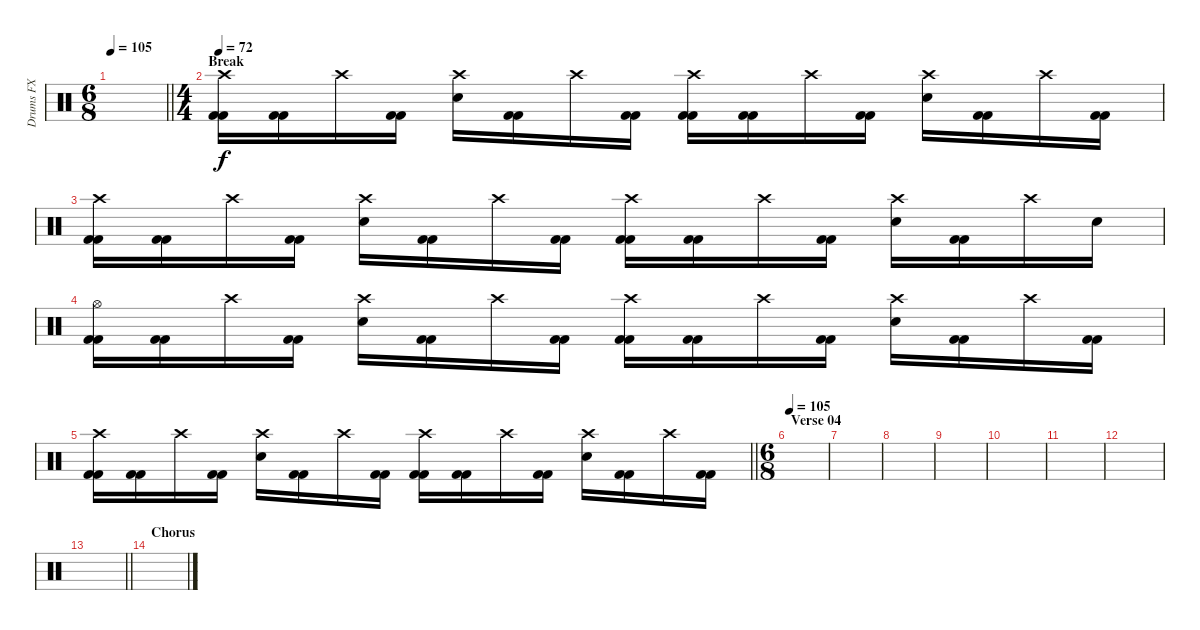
\track ("Drums FX" "Drums FX") {instrument percussion}
\staff {score}
\articulation defaults
\ts (6 8)
\tempo 105
\clef neutral
\barLineRight lightlight
\ks c
|
\ts (4 4)
\section ("" "Break")
\tempo 72
("Crash high (hit)" "Kick (hit) 2" "Kick (hit) 2").16{volume 8 balance 0} ("Kick (hit) 2" "Kick (hit) 2").16 "Crash high (hit)".16 ("Kick (hit) 2" "Kick (hit) 2").16 ("Crash high (hit)" "Electric Snare (hit)").16 ("Kick (hit) 2" "Kick (hit) 2").16 "Crash high (hit)".16 ("Kick (hit) 2" "Kick (hit) 2").16 ("Crash high (hit)" "Kick (hit) 2" "Kick (hit) 2").16 ("Kick (hit) 2" "Kick (hit) 2").16 "Crash high (hit)".16 ("Kick (hit) 2" "Kick (hit) 2").16 ("Crash high (hit)" "Electric Snare (hit)").16 ("Kick (hit) 2" "Kick (hit) 2").16 "Crash high (hit)".16 ("Kick (hit) 2" "Kick (hit) 2").16 |
("Crash high (hit)" "Kick (hit) 2" "Kick (hit) 2").16 ("Kick (hit) 2" "Kick (hit) 2").16 "Crash high (hit)".16 ("Kick (hit) 2" "Kick (hit) 2").16 ("Crash high (hit)" "Electric Snare (hit)").16 ("Kick (hit) 2" "Kick (hit) 2").16 "Crash high (hit)".16 ("Kick (hit) 2" "Kick (hit) 2").16 ("Crash high (hit)" "Kick (hit) 2" "Kick (hit) 2").16 ("Kick (hit) 2" "Kick (hit) 2").16 "Crash high (hit)".16 ("Kick (hit) 2" "Kick (hit) 2").16 ("Crash high (hit)" "Electric Snare (hit)").16 ("Kick (hit) 2" "Kick (hit) 2").16 "Crash high (hit)".16 "Electric Snare (hit)".16 |
("Hi-Hat (open)" "Kick (hit) 2" "Kick (hit) 2").16 ("Kick (hit) 2" "Kick (hit) 2").16 "Crash high (hit)".16 ("Kick (hit) 2" "Kick (hit) 2").16 ("Crash high (hit)" "Electric Snare (hit)").16 ("Kick (hit) 2" "Kick (hit) 2").16 "Crash high (hit)".16 ("Kick (hit) 2" "Kick (hit) 2").16 ("Crash high (hit)" "Kick (hit) 2" "Kick (hit) 2").16 ("Kick (hit) 2" "Kick (hit) 2").16 "Crash high (hit)".16 ("Kick (hit) 2" "Kick (hit) 2").16 ("Crash high (hit)" "Electric Snare (hit)").16 ("Kick (hit) 2" "Kick (hit) 2").16 "Crash high (hit)".16 ("Kick (hit) 2" "Kick (hit) 2").16 |
\barLineRight lightlight
("Crash high (hit)" "Kick (hit) 2" "Kick (hit) 2").16 ("Kick (hit) 2" "Kick (hit) 2").16 "Crash high (hit)".16 ("Kick (hit) 2" "Kick (hit) 2").16 ("Crash high (hit)" "Electric Snare (hit)").16 ("Kick (hit) 2" "Kick (hit) 2").16 "Crash high (hit)".16 ("Kick (hit) 2" "Kick (hit) 2").16 ("Crash high (hit)" "Kick (hit) 2" "Kick (hit) 2").16 ("Kick (hit) 2" "Kick (hit) 2").16 "Crash high (hit)".16 ("Kick (hit) 2" "Kick (hit) 2").16 ("Crash high (hit)" "Electric Snare (hit)").16 ("Kick (hit) 2" "Kick (hit) 2").16 "Crash high (hit)".16 ("Kick (hit) 2" "Kick (hit) 2").16 |
\ts (6 8)
\section ("" "Verse 04")
\tempo 105
|
|
|
|
|
|
|
\barLineRight lightlight
|
\section ("" "Chorus")
